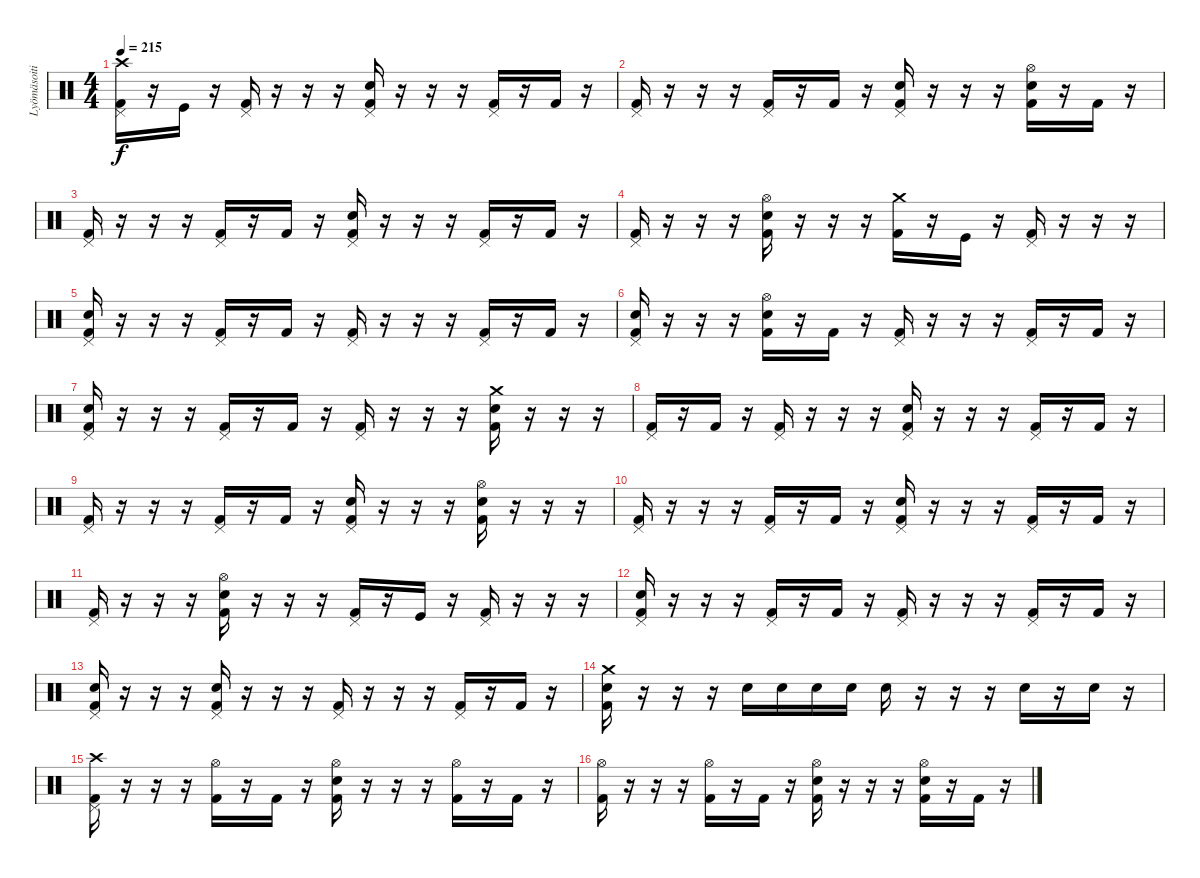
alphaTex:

\track ("Lyömäsoitin" "Lyömäsoiti") {instrument percussion}
\staff {score}
\articulation defaults
\ts (4 4)
\tempo 215
\clef neutral
\ks c
("Crash high (hit)" "Pedal Hi-Hat (hit)" "Kick (hit) 2").16{dy f} r.16 "Kick (hit)".16 r.16 ("Pedal Hi-Hat (hit)" "Kick (hit) 2").16 r.16 r.16 r.16 ("Electric Snare (hit)" "Pedal Hi-Hat (hit)" "Kick (hit) 2").16 r.16 r.16 r.16 ("Pedal Hi-Hat (hit)" "Kick (hit) 2").16 r.16 "Kick (hit) 2".16 r.16 |
("Pedal Hi-Hat (hit)" "Kick (hit) 2").16 r.16 r.16 r.16 ("Pedal Hi-Hat (hit)" "Kick (hit) 2").16 r.16 "Kick (hit) 2".16 r.16 ("Electric Snare (hit)" "Pedal Hi-Hat (hit)" "Kick (hit) 2").16 r.16 r.16 r.16 ("Electric Snare (hit)" "Hi-Hat (open)" "Kick (hit) 2").16 r.16 "Kick (hit) 2".16 r.16 |
("Pedal Hi-Hat (hit)" "Kick (hit) 2").16 r.16 r.16 r.16 ("Pedal Hi-Hat (hit)" "Kick (hit) 2").16 r.16 "Kick (hit) 2".16 r.16 ("Electric Snare (hit)" "Pedal Hi-Hat (hit)" "Kick (hit) 2").16 r.16 r.16 r.16 ("Pedal Hi-Hat (hit)" "Kick (hit) 2").16 r.16 "Kick (hit) 2".16 r.16 |
("Pedal Hi-Hat (hit)" "Kick (hit) 2").16 r.16 r.16 r.16 ("Electric Snare (hit)" "Hi-Hat (open)" "Kick (hit) 2").16 r.16 r.16 r.16 ("Crash medium (hit)" "Kick (hit) 2").16 r.16 "Kick (hit)".16 r.16 ("Pedal Hi-Hat (hit)" "Kick (hit) 2").16 r.16 r.16 r.16 |
("Electric Snare (hit)" "Pedal Hi-Hat (hit)" "Kick (hit) 2").16 r.16 r.16 r.16 ("Pedal Hi-Hat (hit)" "Kick (hit) 2").16 r.16 "Kick (hit) 2".16 r.16 ("Pedal Hi-Hat (hit)" "Kick (hit) 2").16 r.16 r.16 r.16 ("Pedal Hi-Hat (hit)" "Kick (hit) 2").16 r.16 "Kick (hit) 2".16 r.16 |
("Electric Snare (hit)" "Pedal Hi-Hat (hit)" "Kick (hit) 2").16 r.16 r.16 r.16 ("Electric Snare (hit)" "Hi-Hat (open)" "Kick (hit) 2").16 r.16 "Kick (hit) 2".16 r.16 ("Pedal Hi-Hat (hit)" "Kick (hit) 2").16 r.16 r.16 r.16 ("Pedal Hi-Hat (hit)" "Kick (hit) 2").16 r.16 "Kick (hit) 2".16 r.16 |
("Pedal Hi-Hat (hit)" "Electric Snare (hit)" "Kick (hit) 2").16 r.16 r.16 r.16 ("Pedal Hi-Hat (hit)" "Kick (hit) 2").16 r.16 "Kick (hit) 2".16 r.16 ("Pedal Hi-Hat (hit)" "Kick (hit) 2").16 r.16 r.16 r.16 ("Electric Snare (hit)" "Crash medium (hit)" "Kick (hit) 2").16 r.16 r.16 r.16 |
("Pedal Hi-Hat (hit)" "Kick (hit) 2").16 r.16 "Kick (hit) 2".16 r.16 ("Pedal Hi-Hat (hit)" "Kick (hit) 2").16 r.16 r.16 r.16 ("Electric Snare (hit)" "Pedal Hi-Hat (hit)" "Kick (hit) 2").16 r.16 r.16 r.16 ("Pedal Hi-Hat (hit)" "Kick (hit) 2").16 r.16 "Kick (hit) 2".16 r.16 |
("Pedal Hi-Hat (hit)" "Kick (hit) 2").16 r.16 r.16 r.16 ("Pedal Hi-Hat (hit)" "Kick (hit) 2").16 r.16 "Kick (hit) 2".16 r.16 ("Electric Snare (hit)" "Pedal Hi-Hat (hit)" "Kick (hit) 2").16 r.16 r.16 r.16 ("Electric Snare (hit)" "Hi-Hat (open)" "Kick (hit) 2").16 r.16 r.16 r.16 |
("Pedal Hi-Hat (hit)" "Kick (hit) 2").16 r.16 r.16 r.16 ("Pedal Hi-Hat (hit)" "Kick (hit) 2").16 r.16 "Kick (hit) 2".16 r.16 ("Electric Snare (hit)" "Pedal Hi-Hat (hit)" "Kick (hit) 2").16 r.16 r.16 r.16 ("Pedal Hi-Hat (hit)" "Kick (hit) 2").16 r.16 "Kick (hit) 2".16 r.16 |
("Pedal Hi-Hat (hit)" "Kick (hit) 2").16 r.16 r.16 r.16 ("Hi-Hat (open)" "Electric Snare (hit)" "Kick (hit) 2").16 r.16 r.16 r.16 ("Pedal Hi-Hat (hit)" "Kick (hit) 2").16 r.16 "Kick (hit)".16 r.16 ("Pedal Hi-Hat (hit)" "Kick (hit) 2").16 r.16 r.16 r.16 |
("Electric Snare (hit)" "Pedal Hi-Hat (hit)" "Kick (hit) 2").16 r.16 r.16 r.16 ("Pedal Hi-Hat (hit)" "Kick (hit) 2").16 r.16 "Kick (hit) 2".16 r.16 ("Pedal Hi-Hat (hit)" "Kick (hit) 2").16 r.16 r.16 r.16 ("Pedal Hi-Hat (hit)" "Kick (hit) 2").16 r.16 "Kick (hit) 2".16 r.16 |
("Electric Snare (hit)" "Pedal Hi-Hat (hit)" "Kick (hit) 2").16 r.16 r.16 r.16 ("Electric Snare (hit)" "Pedal Hi-Hat (hit)" "Kick (hit) 2").16 r.16 r.16 r.16 ("Pedal Hi-Hat (hit)" "Kick (hit) 2").16 r.16 r.16 r.16 ("Pedal Hi-Hat (hit)" "Kick (hit) 2").16 r.16 "Kick (hit) 2".16 r.16 |
("Crash medium (hit)" "Electric Snare (hit)" "Kick (hit) 2").16 r.16 r.16 r.16 "Electric Snare (hit)".16 "Electric Snare (hit)".16 "Electric Snare (hit)".16 "Electric Snare (hit)".16 "Electric Snare (hit)".16 r.16 r.16 r.16 "Electric Snare (hit)".16 r.16 "Electric Snare (hit)".16 r.16 |
("Crash high (hit)" "Pedal Hi-Hat (hit)" "Kick (hit) 2").16 r.16 r.16 r.16 ("Hi-Hat (open)" "Kick (hit) 2").16 r.16 "Kick (hit) 2".16 r.16 ("Electric Snare (hit)" "Hi-Hat (open)" "Kick (hit) 2").16 r.16 r.16 r.16 ("Hi-Hat (open)" "Kick (hit) 2").16 r.16 "Kick (hit) 2".16 r.16 |
("Hi-Hat (open)" "Kick (hit) 2").16 r.16 r.16 r.16 ("Hi-Hat (open)" "Kick (hit) 2").16 r.16 "Kick (hit) 2".16 r.16 ("Electric Snare (hit)" "Hi-Hat (open)" "Kick (hit) 2").16 r.16 r.16 r.16 ("Electric Snare (hit)" "Hi-Hat (open)" "Kick (hit) 2").16 r.16 "Kick (hit) 2".16 r.16
